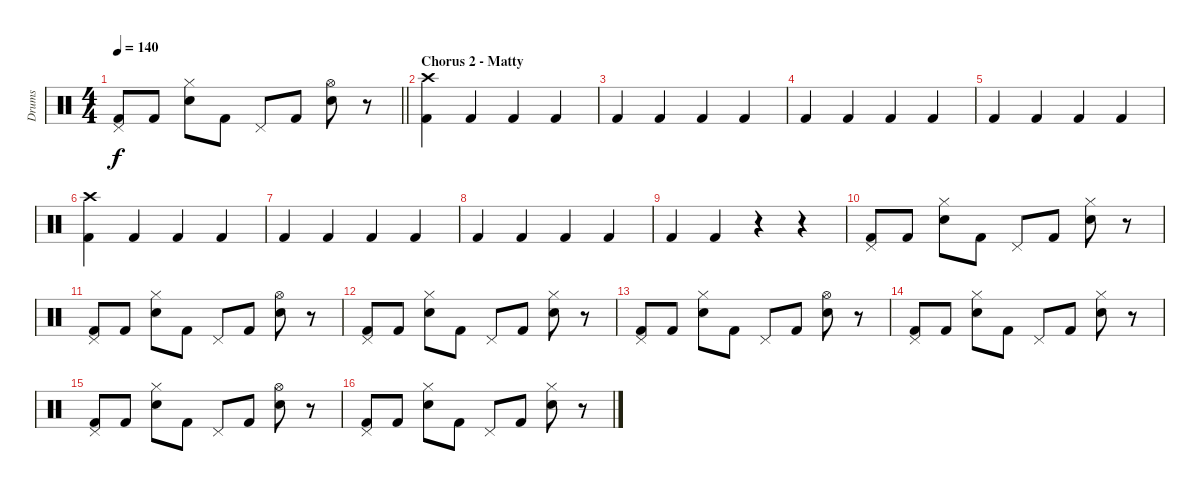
\track ("Drums" "Drums") {instrument percussion bank 127}
\staff {score}
\articulation defaults
\ts (4 4)
\tempo 140
\clef neutral
\barLineRight lightlight
\ks c
("Pedal Hi-Hat (hit)" "Kick (hit) 2").8{dy f} "Kick (hit) 2".8 ("Hi-Hat (closed)" "Electric Snare (hit)").8 "Kick (hit) 2".8 "Pedal Hi-Hat (hit)".8 "Kick (hit) 2".8 ("Hi-Hat (open)" "Electric Snare (hit)").8 r.8 |
\section ("" "Chorus 2 - Matty")
("Crash high (hit)" "Kick (hit) 2").4 "Kick (hit) 2".4 "Kick (hit) 2".4 "Kick (hit) 2".4 |
"Kick (hit) 2".4 "Kick (hit) 2".4 "Kick (hit) 2".4 "Kick (hit) 2".4 |
"Kick (hit) 2".4 "Kick (hit) 2".4 "Kick (hit) 2".4 "Kick (hit) 2".4 |
"Kick (hit) 2".4 "Kick (hit) 2".4 "Kick (hit) 2".4 "Kick (hit) 2".4 |
("Crash high (hit)" "Kick (hit) 2").4 "Kick (hit) 2".4 "Kick (hit) 2".4 "Kick (hit) 2".4 |
"Kick (hit) 2".4 "Kick (hit) 2".4 "Kick (hit) 2".4 "Kick (hit) 2".4 |
"Kick (hit) 2".4 "Kick (hit) 2".4 "Kick (hit) 2".4 "Kick (hit) 2".4 |
"Kick (hit) 2".4 "Kick (hit) 2".4 r.4 r.4 |
("Pedal Hi-Hat (hit)" "Kick (hit) 2").8 "Kick (hit) 2".8 ("Hi-Hat (closed)" "Electric Snare (hit)").8 "Kick (hit) 2".8 "Pedal Hi-Hat (hit)".8 "Kick (hit) 2".8 ("Hi-Hat (closed)" "Electric Snare (hit)").8 r.8 |
("Pedal Hi-Hat (hit)" "Kick (hit) 2").8 "Kick (hit) 2".8 ("Hi-Hat (closed)" "Electric Snare (hit)").8 "Kick (hit) 2".8 "Pedal Hi-Hat (hit)".8 "Kick (hit) 2".8 ("Hi-Hat (open)" "Electric Snare (hit)").8 r.8 |
("Pedal Hi-Hat (hit)" "Kick (hit) 2").8 "Kick (hit) 2".8 ("Hi-Hat (closed)" "Electric Snare (hit)").8 "Kick (hit) 2".8 "Pedal Hi-Hat (hit)".8 "Kick (hit) 2".8 ("Hi-Hat (closed)" "Electric Snare (hit)").8 r.8 |
("Pedal Hi-Hat (hit)" "Kick (hit) 2").8 "Kick (hit) 2".8 ("Hi-Hat (closed)" "Electric Snare (hit)").8 "Kick (hit) 2".8 "Pedal Hi-Hat (hit)".8 "Kick (hit) 2".8 ("Hi-Hat (open)" "Electric Snare (hit)").8 r.8 |
("Pedal Hi-Hat (hit)" "Kick (hit) 2").8 "Kick (hit) 2".8 ("Hi-Hat (closed)" "Electric Snare (hit)").8 "Kick (hit) 2".8 "Pedal Hi-Hat (hit)".8 "Kick (hit) 2".8 ("Hi-Hat (closed)" "Electric Snare (hit)").8 r.8 |
("Pedal Hi-Hat (hit)" "Kick (hit) 2").8 "Kick (hit) 2".8 ("Hi-Hat (closed)" "Electric Snare (hit)").8 "Kick (hit) 2".8 "Pedal Hi-Hat (hit)".8 "Kick (hit) 2".8 ("Hi-Hat (open)" "Electric Snare (hit)").8 r.8 |
("Pedal Hi-Hat (hit)" "Kick (hit) 2").8 "Kick (hit) 2".8 ("Hi-Hat (closed)" "Electric Snare (hit)").8 "Kick (hit) 2".8 "Pedal Hi-Hat (hit)".8 "Kick (hit) 2".8 ("Hi-Hat (closed)" "Electric Snare (hit)").8 r.8
